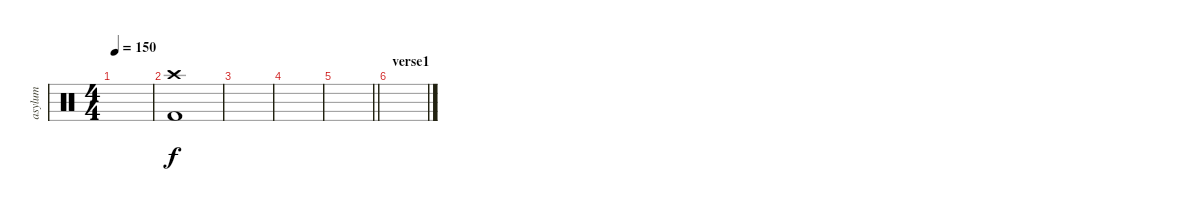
\track ("asylum" "asylum") {instrument percussion}
\staff {score}
\articulation defaults
\ts (4 4)
\tempo 150
\clef neutral
\ks c
|
("Crash high (hit)" "Kick (hit) 2").1{dy f} |
|
|
\barLineRight lightlight
|
\section ("" "verse1")
